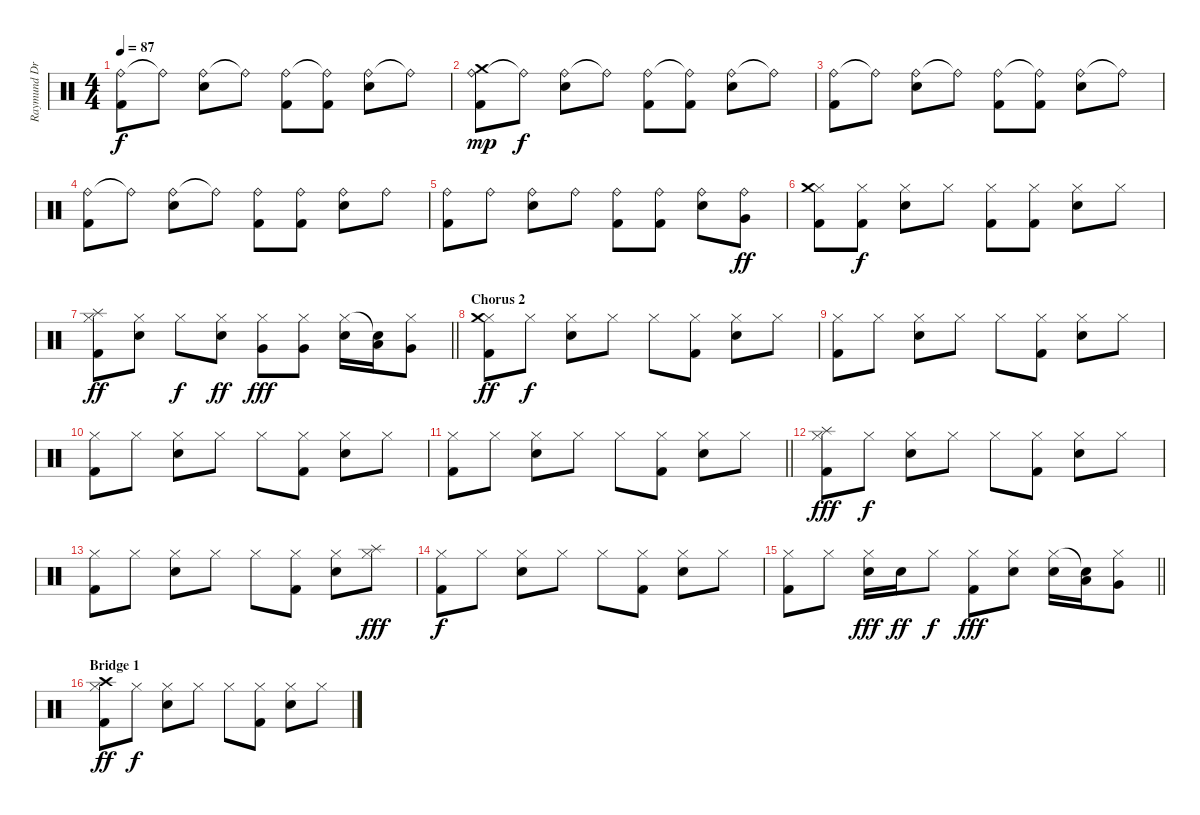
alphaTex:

\track ("Raymund Drums" "Raymund Dr") {instrument percussion}
\staff {score}
\articulation defaults
\ts (4 4)
\tempo 87
\clef neutral
\ks c
("Ride (bell)" "Kick (hit) 2").8{dy f} "Ride (bell)"{t}.8 ("Ride (bell)" "Snare (hit) 2").8 "Ride (bell)"{t}.8 ("Ride (bell)" "Kick (hit) 2").8 ("Ride (bell)"{t} "Kick (hit) 2").8 ("Ride (bell)" "Snare (hit) 2").8 "Ride (bell)"{t}.8 |
("Ride (bell)" "Kick (hit) 2" "Crash medium (hit)").8{dy mp} "Ride (bell)"{t}.8{dy f} ("Ride (bell)" "Snare (hit) 2").8 "Ride (bell)"{t}.8 ("Ride (bell)" "Kick (hit) 2").8 ("Ride (bell)"{t} "Kick (hit) 2").8 ("Ride (bell)" "Snare (hit) 2").8 "Ride (bell)"{t}.8 |
("Ride (bell)" "Kick (hit) 2").8 "Ride (bell)"{t}.8 ("Ride (bell)" "Snare (hit) 2").8 "Ride (bell)"{t}.8 ("Ride (bell)" "Kick (hit) 2").8 ("Ride (bell)"{t} "Kick (hit) 2").8 ("Ride (bell)" "Snare (hit) 2").8 "Ride (bell)"{t}.8 |
("Ride (bell)" "Kick (hit) 2").8 "Ride (bell)"{t}.8 ("Ride (bell)" "Snare (hit) 2").8 "Ride (bell)"{t}.8 ("Ride (bell)" "Kick (hit) 2").8 ("Ride (bell)" "Kick (hit) 2").8 ("Ride (bell)" "Snare (hit) 2").8 "Ride (bell)".8 |
("Ride (bell)" "Kick (hit) 2").8 "Ride (bell)".8 ("Ride (bell)" "Snare (hit) 2").8 "Ride (bell)".8 ("Ride (bell)" "Kick (hit) 2").8 ("Ride (bell)" "Kick (hit) 2").8 ("Ride (bell)" "Snare (hit) 2").8 ("Ride (bell)" "Very Low Tom (hit)").8{dy ff} |
("Hi-Hat (closed)" "Kick (hit) 2" "Crash medium (hit)").8 ("Hi-Hat (closed)" "Kick (hit) 2").8{dy f} ("Hi-Hat (closed)" "Snare (hit) 2").8 "Hi-Hat (closed)".8 ("Hi-Hat (closed)" "Kick (hit) 2").8 ("Hi-Hat (closed)" "Kick (hit) 2").8 ("Hi-Hat (closed)" "Snare (hit) 2").8 "Hi-Hat (closed)".8 |
\barLineRight lightlight
("Hi-Hat (closed)" "Kick (hit) 2" "Splash (hit)").8{dy ff} ("Hi-Hat (closed)" "Snare (hit) 2").8 "Hi-Hat (closed)".8{dy f} ("Hi-Hat (closed)" "Snare (hit) 2").8{dy ff} ("Hi-Hat (closed)" "Very Low Tom (hit)").8{dy fff} ("Hi-Hat (closed)" "Very Low Tom (hit)").8 ("Hi-Hat (closed)" "Snare (hit) 2").16 ("Snare (hit)"{t} "Low Tom (hit)").16 ("Hi-Hat (closed)" "Very Low Tom (hit)").8 |
\section ("" "Chorus 2")
("Hi-Hat (closed)" "Kick (hit) 2" "Crash medium (hit)").8{dy ff} "Hi-Hat (closed)".8{dy f} ("Hi-Hat (closed)" "Snare (hit) 2").8 "Hi-Hat (closed)".8 "Hi-Hat (closed)".8 ("Hi-Hat (closed)" "Kick (hit) 2").8 ("Hi-Hat (closed)" "Snare (hit) 2").8 "Hi-Hat (closed)".8 |
("Hi-Hat (closed)" "Kick (hit) 2").8 "Hi-Hat (closed)".8 ("Hi-Hat (closed)" "Snare (hit) 2").8 "Hi-Hat (closed)".8 "Hi-Hat (closed)".8 ("Hi-Hat (closed)" "Kick (hit) 2").8 ("Hi-Hat (closed)" "Snare (hit) 2").8 "Hi-Hat (closed)".8 |
("Hi-Hat (closed)" "Kick (hit) 2").8 "Hi-Hat (closed)".8 ("Hi-Hat (closed)" "Snare (hit) 2").8 "Hi-Hat (closed)".8 "Hi-Hat (closed)".8 ("Hi-Hat (closed)" "Kick (hit) 2").8 ("Hi-Hat (closed)" "Snare (hit) 2").8 "Hi-Hat (closed)".8 |
\barLineRight lightlight
("Hi-Hat (closed)" "Kick (hit) 2").8 "Hi-Hat (closed)".8 ("Hi-Hat (closed)" "Snare (hit) 2").8 "Hi-Hat (closed)".8 "Hi-Hat (closed)".8 ("Hi-Hat (closed)" "Kick (hit) 2").8 ("Hi-Hat (closed)" "Snare (hit) 2").8 "Hi-Hat (closed)".8 |
("Hi-Hat (closed)" "Kick (hit) 2" "Splash (hit)").8{dy fff} "Hi-Hat (closed)".8{dy f} ("Hi-Hat (closed)" "Snare (hit) 2").8 "Hi-Hat (closed)".8 "Hi-Hat (closed)".8 ("Hi-Hat (closed)" "Kick (hit) 2").8 ("Hi-Hat (closed)" "Snare (hit) 2").8 "Hi-Hat (closed)".8 |
("Hi-Hat (closed)" "Kick (hit) 2").8 "Hi-Hat (closed)".8 ("Hi-Hat (closed)" "Snare (hit) 2").8 "Hi-Hat (closed)".8 "Hi-Hat (closed)".8 ("Hi-Hat (closed)" "Kick (hit) 2").8 ("Hi-Hat (closed)" "Snare (hit) 2").8 ("Hi-Hat (closed)" "Splash (hit)").8{dy fff} |
("Hi-Hat (closed)" "Kick (hit) 2").8{dy f} "Hi-Hat (closed)".8 ("Hi-Hat (closed)" "Snare (hit) 2").8 "Hi-Hat (closed)".8 "Hi-Hat (closed)".8 ("Hi-Hat (closed)" "Kick (hit) 2").8 ("Hi-Hat (closed)" "Snare (hit) 2").8 "Hi-Hat (closed)".8 |
\barLineRight lightlight
("Hi-Hat (closed)" "Kick (hit) 2").8 "Hi-Hat (closed)".8 ("Hi-Hat (closed)" "Snare (hit) 2").16{dy fff} "Snare (hit) 2".16{dy ff} "Hi-Hat (closed)".8{dy f} ("Hi-Hat (closed)" "Kick (hit) 2").8{dy fff} ("Hi-Hat (closed)" "Snare (hit) 2").8 ("Hi-Hat (closed)" "Snare (hit) 2").16 ("Snare (hit)"{t} "Low Tom (hit)").16 ("Hi-Hat (closed)" "Very Low Tom (hit)").8 |
\section ("" "Bridge 1")
("Hi-Hat (closed)" "Kick (hit) 2" "Crash high (hit)").8{dy ff} "Hi-Hat (closed)".8{dy f} ("Hi-Hat (closed)" "Snare (hit) 2").8 "Hi-Hat (closed)".8 "Hi-Hat (closed)".8 ("Hi-Hat (closed)" "Kick (hit) 2").8 ("Hi-Hat (closed)" "Snare (hit) 2").8 "Hi-Hat (closed)".8
